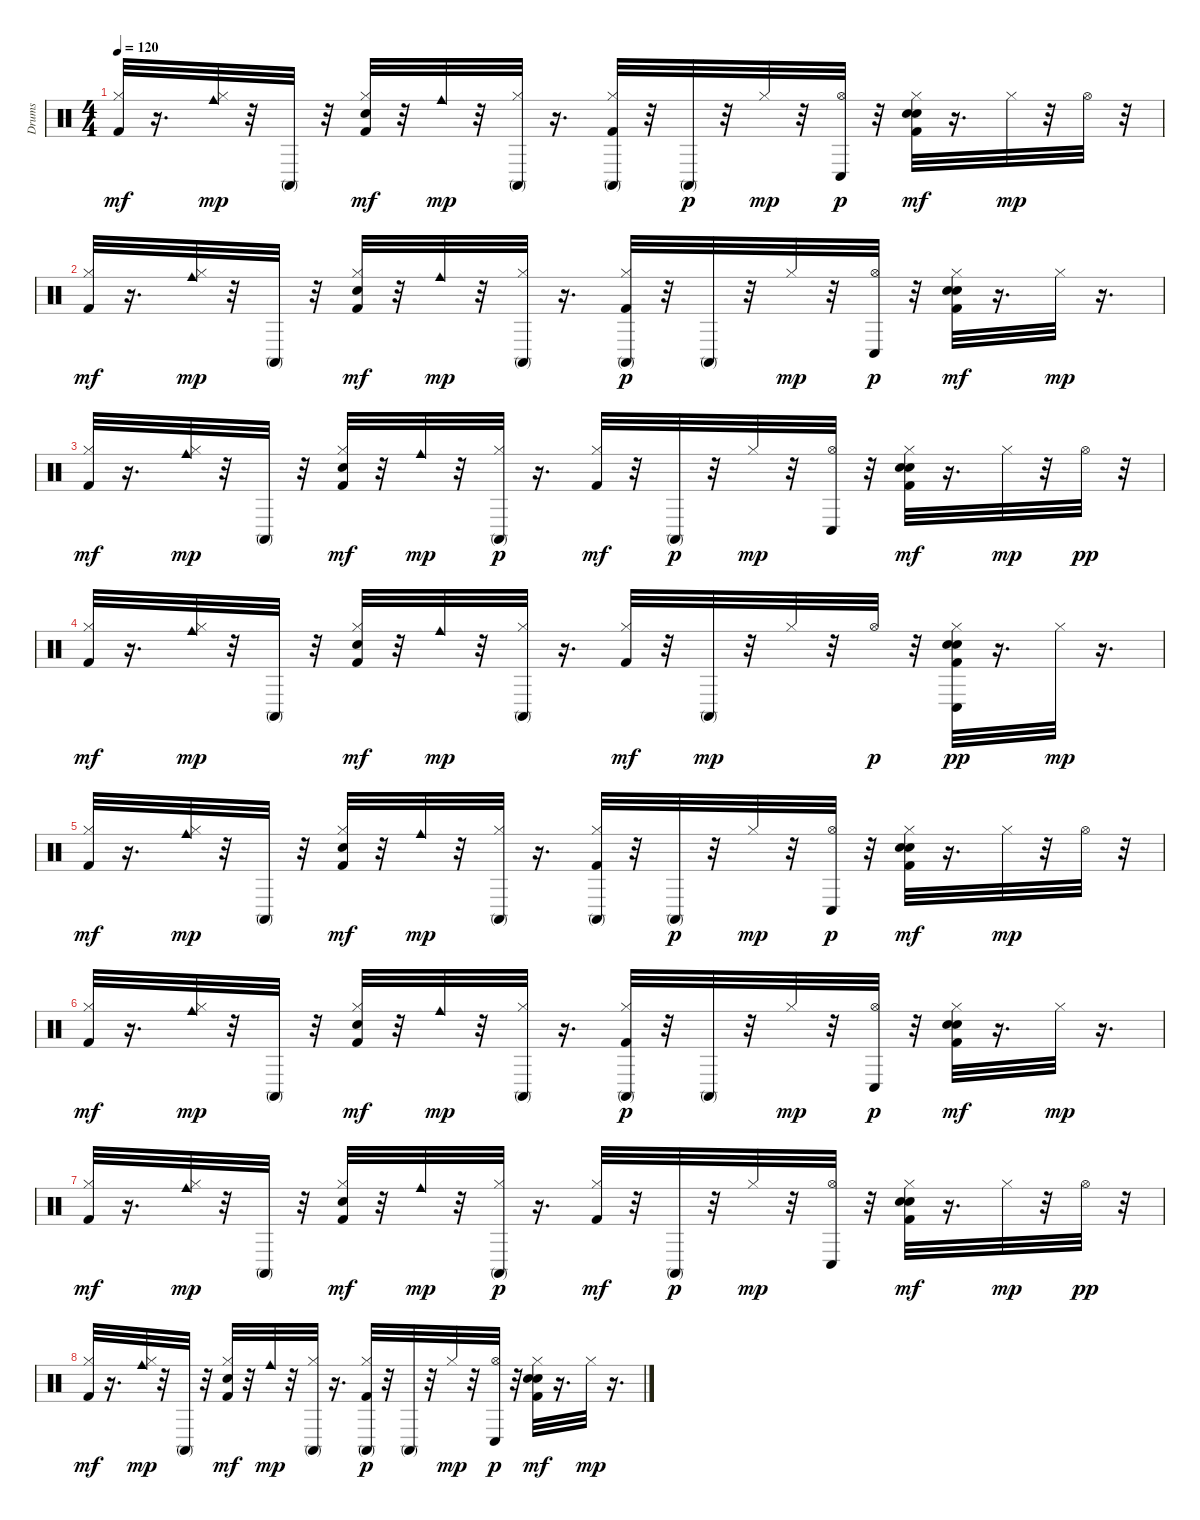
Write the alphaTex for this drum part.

\track ("Drums" "Drums") {instrument percussion}
\staff {score}
\articulation defaults
\ts (4 4)
\tempo 120
\clef neutral
\ks c
("Hi-Hat (closed)" "Kick (hit) 2").32{dy mf} r.16{d} ("Hi-Hat (closed)" "Cowbell medium (hit)").32{dy mp} r.32 "Conga high (mute)".32 r.32 ("Hi-Hat (closed)" "Electric Snare (hit)" "Kick (hit) 2").32{dy mf} r.32 "Cowbell medium (hit)".32{dy mp} r.32 ("Hi-Hat (closed)" "Conga high (mute)").32 r.16{d} ("Hi-Hat (closed)" "Kick (hit) 2" "Conga high (mute)").32 r.32 "Conga high (mute)".32{dy p} r.32 "Hi-Hat (closed)".32{dy mp} r.32 ("Hi-Hat (open)" "Conga low (hit)").32{dy p} r.32 ("Kick (hit) 2" "Hi-Hat (closed)" "Electric Snare (hit)" "Hand Clap (hit)").32{dy mf} r.16{d} "Hi-Hat (closed)".32{dy mp} r.32 "Hi-Hat (open)".32 r.32 |
("Hi-Hat (closed)" "Kick (hit) 2").32{dy mf} r.16{d} ("Hi-Hat (closed)" "Cowbell medium (hit)").32{dy mp} r.32 "Conga high (mute)".32 r.32 ("Hi-Hat (closed)" "Electric Snare (hit)" "Kick (hit) 2").32{dy mf} r.32 "Cowbell medium (hit)".32{dy mp} r.32 ("Hi-Hat (closed)" "Conga high (mute)").32 r.16{d} ("Kick (hit) 2" "Hi-Hat (closed)" "Conga high (mute)").32{dy p} r.32 "Conga high (mute)".32 r.32 "Hi-Hat (closed)".32{dy mp} r.32 ("Hi-Hat (open)" "Conga low (hit)").32{dy p} r.32 ("Hi-Hat (closed)" "Hand Clap (hit)" "Electric Snare (hit)" "Kick (hit) 2").32{dy mf} r.16{d} "Hi-Hat (closed)".32{dy mp} r.16{d} |
("Hi-Hat (closed)" "Kick (hit) 2").32{dy mf} r.16{d} ("Hi-Hat (closed)" "Cowbell medium (hit)").32{dy mp} r.32 "Conga high (mute)".32 r.32 ("Hi-Hat (closed)" "Electric Snare (hit)" "Kick (hit) 2").32{dy mf} r.32 "Cowbell medium (hit)".32{dy mp} r.32 ("Hi-Hat (closed)" "Conga high (mute)").32{dy p} r.16{d} ("Hi-Hat (closed)" "Kick (hit) 2").32{dy mf} r.32 "Conga high (mute)".32{dy p} r.32 "Hi-Hat (closed)".32{dy mp} r.32 ("Hi-Hat (open)" "Conga low (hit)").32 r.32 ("Kick (hit) 2" "Hi-Hat (closed)" "Electric Snare (hit)" "Hand Clap (hit)").32{dy mf} r.16{d} "Hi-Hat (closed)".32{dy mp} r.32 "Hi-Hat (open)".32{dy pp} r.32 |
("Hi-Hat (closed)" "Kick (hit) 2").32{dy mf} r.16{d} ("Hi-Hat (closed)" "Cowbell medium (hit)").32{dy mp} r.32 "Conga high (mute)".32 r.32 ("Hi-Hat (closed)" "Electric Snare (hit)" "Kick (hit) 2").32{dy mf} r.32 "Cowbell medium (hit)".32{dy mp} r.32 ("Hi-Hat (closed)" "Conga high (mute)").32 r.16{d} ("Hi-Hat (closed)" "Kick (hit) 2").32{dy mf} r.32 "Conga high (mute)".32{dy mp} r.32 "Hi-Hat (closed)".32 r.32 "Hi-Hat (open)".32{dy p} r.32 ("Hi-Hat (closed)" "Kick (hit) 2" "Hand Clap (hit)" "Electric Snare (hit)" "Conga low (hit)").32{dy pp} r.16{d} "Hi-Hat (closed)".32{dy mp} r.16{d} |
("Hi-Hat (closed)" "Kick (hit) 2").32{dy mf} r.16{d} ("Hi-Hat (closed)" "Cowbell medium (hit)").32{dy mp} r.32 "Conga high (mute)".32 r.32 ("Hi-Hat (closed)" "Electric Snare (hit)" "Kick (hit) 2").32{dy mf} r.32 "Cowbell medium (hit)".32{dy mp} r.32 ("Hi-Hat (closed)" "Conga high (mute)").32 r.16{d} ("Hi-Hat (closed)" "Kick (hit) 2" "Conga high (mute)").32 r.32 "Conga high (mute)".32{dy p} r.32 "Hi-Hat (closed)".32{dy mp} r.32 ("Hi-Hat (open)" "Conga low (hit)").32{dy p} r.32 ("Kick (hit) 2" "Hi-Hat (closed)" "Electric Snare (hit)" "Hand Clap (hit)").32{dy mf} r.16{d} "Hi-Hat (closed)".32{dy mp} r.32 "Hi-Hat (open)".32 r.32 |
("Hi-Hat (closed)" "Kick (hit) 2").32{dy mf} r.16{d} ("Hi-Hat (closed)" "Cowbell medium (hit)").32{dy mp} r.32 "Conga high (mute)".32 r.32 ("Hi-Hat (closed)" "Electric Snare (hit)" "Kick (hit) 2").32{dy mf} r.32 "Cowbell medium (hit)".32{dy mp} r.32 ("Hi-Hat (closed)" "Conga high (mute)").32 r.16{d} ("Kick (hit) 2" "Hi-Hat (closed)" "Conga high (mute)").32{dy p} r.32 "Conga high (mute)".32 r.32 "Hi-Hat (closed)".32{dy mp} r.32 ("Hi-Hat (open)" "Conga low (hit)").32{dy p} r.32 ("Hi-Hat (closed)" "Hand Clap (hit)" "Electric Snare (hit)" "Kick (hit) 2").32{dy mf} r.16{d} "Hi-Hat (closed)".32{dy mp} r.16{d} |
("Hi-Hat (closed)" "Kick (hit) 2").32{dy mf} r.16{d} ("Hi-Hat (closed)" "Cowbell medium (hit)").32{dy mp} r.32 "Conga high (mute)".32 r.32 ("Hi-Hat (closed)" "Electric Snare (hit)" "Kick (hit) 2").32{dy mf} r.32 "Cowbell medium (hit)".32{dy mp} r.32 ("Hi-Hat (closed)" "Conga high (mute)").32{dy p} r.16{d} ("Hi-Hat (closed)" "Kick (hit) 2").32{dy mf} r.32 "Conga high (mute)".32{dy p} r.32 "Hi-Hat (closed)".32{dy mp} r.32 ("Hi-Hat (open)" "Conga low (hit)").32 r.32 ("Kick (hit) 2" "Hi-Hat (closed)" "Electric Snare (hit)" "Hand Clap (hit)").32{dy mf} r.16{d} "Hi-Hat (closed)".32{dy mp} r.32 "Hi-Hat (open)".32{dy pp} r.32 |
("Hi-Hat (closed)" "Kick (hit) 2").32{dy mf} r.16{d} ("Hi-Hat (closed)" "Cowbell medium (hit)").32{dy mp} r.32 "Conga high (mute)".32 r.32 ("Hi-Hat (closed)" "Electric Snare (hit)" "Kick (hit) 2").32{dy mf} r.32 "Cowbell medium (hit)".32{dy mp} r.32 ("Hi-Hat (closed)" "Conga high (mute)").32 r.16{d} ("Kick (hit) 2" "Hi-Hat (closed)" "Conga high (mute)").32{dy p} r.32 "Conga high (mute)".32 r.32 "Hi-Hat (closed)".32{dy mp} r.32 ("Hi-Hat (open)" "Conga low (hit)").32{dy p} r.32 ("Hi-Hat (closed)" "Hand Clap (hit)" "Electric Snare (hit)" "Kick (hit) 2").32{dy mf} r.16{d} "Hi-Hat (closed)".32{dy mp} r.16{d}
